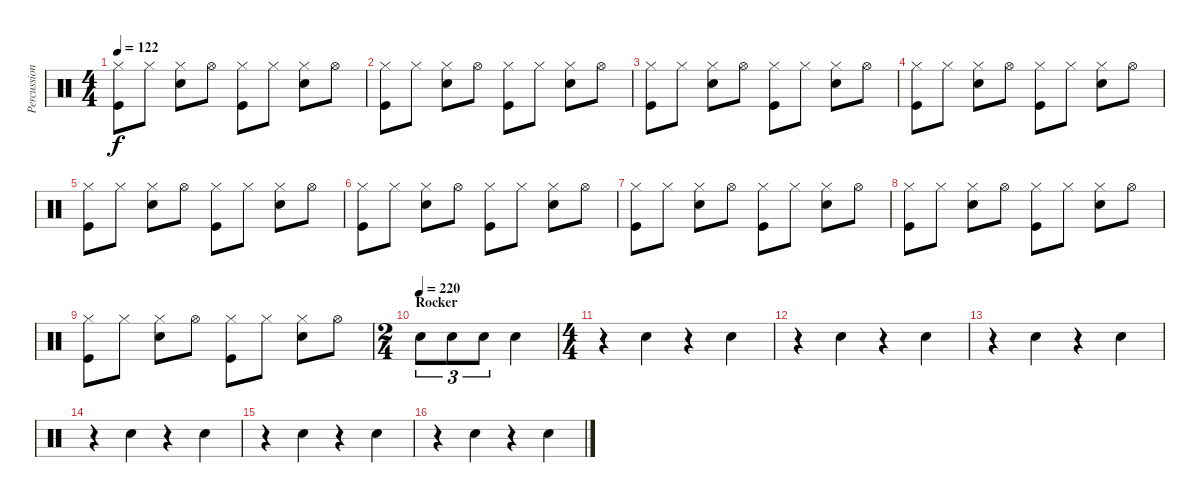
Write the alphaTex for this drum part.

\track ("Percussions" "Percussion") {instrument percussion}
\staff {score}
\articulation defaults
\ts (4 4)
\tempo 122
\clef neutral
\ks c
("Hi-Hat (closed)" "Kick (hit)").8{dy f} "Hi-Hat (closed)".8 ("Hi-Hat (closed)" "Snare (hit) 2").8 "Hi-Hat (open)".8 ("Hi-Hat (closed)" "Kick (hit)").8 "Hi-Hat (closed)".8 ("Hi-Hat (closed)" "Snare (hit) 2").8 "Hi-Hat (open)".8 |
("Hi-Hat (closed)" "Kick (hit)").8 "Hi-Hat (closed)".8 ("Hi-Hat (closed)" "Snare (hit) 2").8 "Hi-Hat (open)".8 ("Hi-Hat (closed)" "Kick (hit)").8 "Hi-Hat (closed)".8 ("Hi-Hat (closed)" "Snare (hit) 2").8 "Hi-Hat (open)".8 |
("Hi-Hat (closed)" "Kick (hit)").8 "Hi-Hat (closed)".8 ("Hi-Hat (closed)" "Snare (hit) 2").8 "Hi-Hat (open)".8 ("Hi-Hat (closed)" "Kick (hit)").8 "Hi-Hat (closed)".8 ("Hi-Hat (closed)" "Snare (hit) 2").8 "Hi-Hat (open)".8 |
("Hi-Hat (closed)" "Kick (hit)").8 "Hi-Hat (closed)".8 ("Hi-Hat (closed)" "Snare (hit) 2").8 "Hi-Hat (open)".8 ("Hi-Hat (closed)" "Kick (hit)").8 "Hi-Hat (closed)".8 ("Hi-Hat (closed)" "Snare (hit) 2").8 "Hi-Hat (open)".8 |
("Hi-Hat (closed)" "Kick (hit)").8 "Hi-Hat (closed)".8 ("Hi-Hat (closed)" "Snare (hit) 2").8 "Hi-Hat (open)".8 ("Hi-Hat (closed)" "Kick (hit)").8 "Hi-Hat (closed)".8 ("Hi-Hat (closed)" "Snare (hit) 2").8 "Hi-Hat (open)".8 |
("Hi-Hat (closed)" "Kick (hit)").8 "Hi-Hat (closed)".8 ("Hi-Hat (closed)" "Snare (hit) 2").8 "Hi-Hat (open)".8 ("Hi-Hat (closed)" "Kick (hit)").8 "Hi-Hat (closed)".8 ("Hi-Hat (closed)" "Snare (hit) 2").8 "Hi-Hat (open)".8 |
("Hi-Hat (closed)" "Kick (hit)").8 "Hi-Hat (closed)".8 ("Hi-Hat (closed)" "Snare (hit) 2").8 "Hi-Hat (open)".8 ("Hi-Hat (closed)" "Kick (hit)").8 "Hi-Hat (closed)".8 ("Hi-Hat (closed)" "Snare (hit) 2").8 "Hi-Hat (open)".8 |
("Hi-Hat (closed)" "Kick (hit)").8 "Hi-Hat (closed)".8 ("Hi-Hat (closed)" "Snare (hit) 2").8 "Hi-Hat (open)".8 ("Hi-Hat (closed)" "Kick (hit)").8 "Hi-Hat (closed)".8 ("Hi-Hat (closed)" "Snare (hit) 2").8 "Hi-Hat (open)".8 |
("Hi-Hat (closed)" "Kick (hit)").8 "Hi-Hat (closed)".8 ("Hi-Hat (closed)" "Snare (hit) 2").8 "Hi-Hat (open)".8 ("Hi-Hat (closed)" "Kick (hit)").8 "Hi-Hat (closed)".8 ("Hi-Hat (closed)" "Snare (hit) 2").8 "Hi-Hat (open)".8 |
\ts (2 4)
\section ("" "Rocker")
\tempo (220)
"Snare (hit) 2".8{tu (3 2)} "Snare (hit) 2".8{tu (3 2)} "Snare (hit) 2".8{tu (3 2)} "Snare (hit) 2".4 |
\ts (4 4)
r.4 "Snare (hit) 2".4 r.4 "Snare (hit) 2".4 |
r.4 "Snare (hit) 2".4 r.4 "Snare (hit) 2".4 |
r.4 "Snare (hit) 2".4 r.4 "Snare (hit) 2".4 |
r.4 "Snare (hit) 2".4 r.4 "Snare (hit) 2".4 |
r.4 "Snare (hit) 2".4 r.4 "Snare (hit) 2".4 |
r.4 "Snare (hit) 2".4 r.4 "Snare (hit) 2".4
